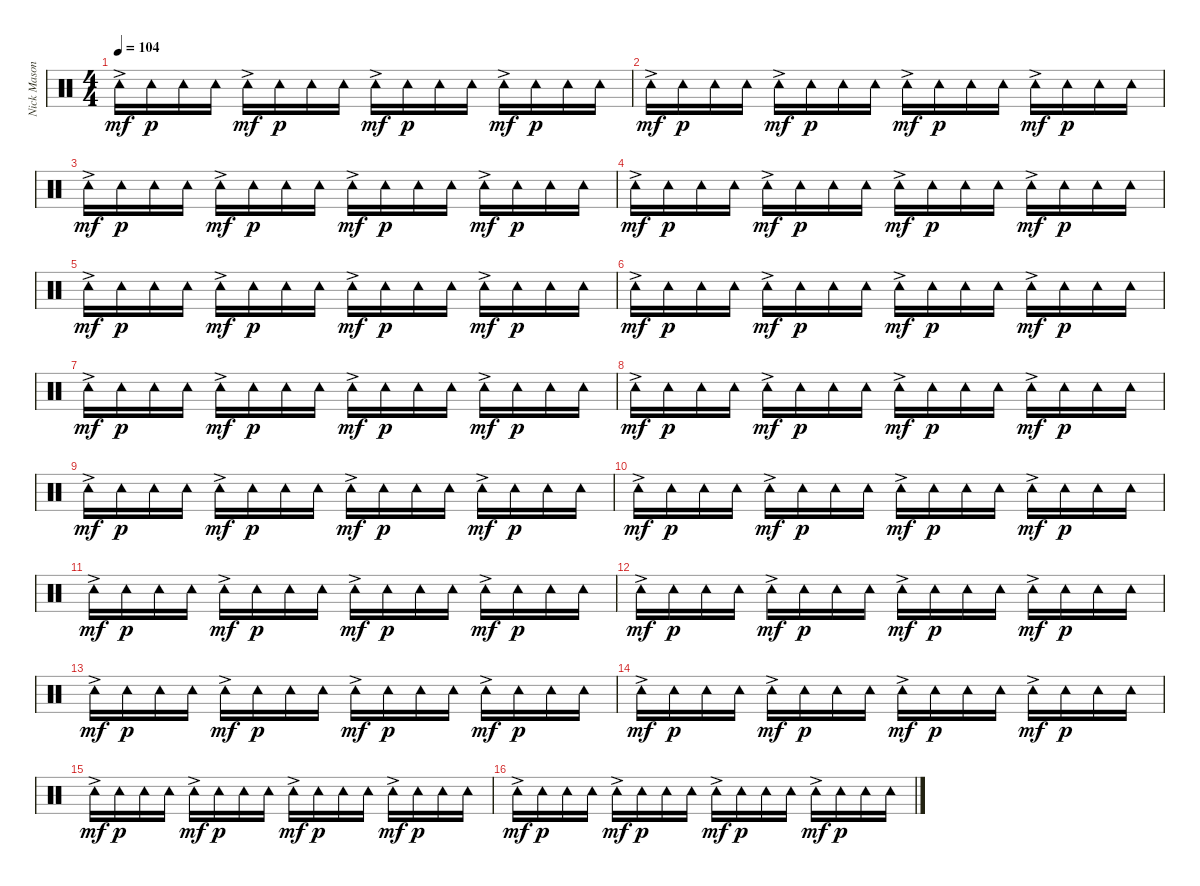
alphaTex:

\track ("Nick Mason | Tambourine" "Nick Mason") {instrument percussion}
\staff {score}
\articulation defaults
\ts (4 4)
\tempo 104
\clef neutral
\ks c "Tambourine (hit)"{ac}.16{dy mf} "Tambourine (hit)".16{dy p} "Tambourine (hit)".16 "Tambourine (hit)".16 "Tambourine (hit)"{ac}.16{dy mf} "Tambourine (hit)".16{dy p} "Tambourine (hit)".16 "Tambourine (hit)".16 "Tambourine (hit)"{ac}.16{dy mf} "Tambourine (hit)".16{dy p} "Tambourine (hit)".16 "Tambourine (hit)".16 "Tambourine (hit)"{ac}.16{dy mf} "Tambourine (hit)".16{dy p} "Tambourine (hit)".16 "Tambourine (hit)".16
|
"Tambourine (hit)"{ac}.16{dy mf} "Tambourine (hit)".16{dy p} "Tambourine (hit)".16 "Tambourine (hit)".16 "Tambourine (hit)"{ac}.16{dy mf} "Tambourine (hit)".16{dy p} "Tambourine (hit)".16 "Tambourine (hit)".16 "Tambourine (hit)"{ac}.16{dy mf} "Tambourine (hit)".16{dy p} "Tambourine (hit)".16 "Tambourine (hit)".16 "Tambourine (hit)"{ac}.16{dy mf} "Tambourine (hit)".16{dy p} "Tambourine (hit)".16 "Tambourine (hit)".16 |
"Tambourine (hit)"{ac}.16{dy mf} "Tambourine (hit)".16{dy p} "Tambourine (hit)".16 "Tambourine (hit)".16 "Tambourine (hit)"{ac}.16{dy mf} "Tambourine (hit)".16{dy p} "Tambourine (hit)".16 "Tambourine (hit)".16 "Tambourine (hit)"{ac}.16{dy mf} "Tambourine (hit)".16{dy p} "Tambourine (hit)".16 "Tambourine (hit)".16 "Tambourine (hit)"{ac}.16{dy mf} "Tambourine (hit)".16{dy p} "Tambourine (hit)".16 "Tambourine (hit)".16 |
"Tambourine (hit)"{ac}.16{dy mf} "Tambourine (hit)".16{dy p} "Tambourine (hit)".16 "Tambourine (hit)".16 "Tambourine (hit)"{ac}.16{dy mf} "Tambourine (hit)".16{dy p} "Tambourine (hit)".16 "Tambourine (hit)".16 "Tambourine (hit)"{ac}.16{dy mf} "Tambourine (hit)".16{dy p} "Tambourine (hit)".16 "Tambourine (hit)".16 "Tambourine (hit)"{ac}.16{dy mf} "Tambourine (hit)".16{dy p} "Tambourine (hit)".16 "Tambourine (hit)".16 |
"Tambourine (hit)"{ac}.16{dy mf} "Tambourine (hit)".16{dy p} "Tambourine (hit)".16 "Tambourine (hit)".16 "Tambourine (hit)"{ac}.16{dy mf} "Tambourine (hit)".16{dy p} "Tambourine (hit)".16 "Tambourine (hit)".16 "Tambourine (hit)"{ac}.16{dy mf} "Tambourine (hit)".16{dy p} "Tambourine (hit)".16 "Tambourine (hit)".16 "Tambourine (hit)"{ac}.16{dy mf} "Tambourine (hit)".16{dy p} "Tambourine (hit)".16 "Tambourine (hit)".16 |
"Tambourine (hit)"{ac}.16{dy mf} "Tambourine (hit)".16{dy p} "Tambourine (hit)".16 "Tambourine (hit)".16 "Tambourine (hit)"{ac}.16{dy mf} "Tambourine (hit)".16{dy p} "Tambourine (hit)".16 "Tambourine (hit)".16 "Tambourine (hit)"{ac}.16{dy mf} "Tambourine (hit)".16{dy p} "Tambourine (hit)".16 "Tambourine (hit)".16 "Tambourine (hit)"{ac}.16{dy mf} "Tambourine (hit)".16{dy p} "Tambourine (hit)".16 "Tambourine (hit)".16 |
"Tambourine (hit)"{ac}.16{dy mf} "Tambourine (hit)".16{dy p} "Tambourine (hit)".16 "Tambourine (hit)".16 "Tambourine (hit)"{ac}.16{dy mf} "Tambourine (hit)".16{dy p} "Tambourine (hit)".16 "Tambourine (hit)".16 "Tambourine (hit)"{ac}.16{dy mf} "Tambourine (hit)".16{dy p} "Tambourine (hit)".16 "Tambourine (hit)".16 "Tambourine (hit)"{ac}.16{dy mf} "Tambourine (hit)".16{dy p} "Tambourine (hit)".16 "Tambourine (hit)".16 |
"Tambourine (hit)"{ac}.16{dy mf} "Tambourine (hit)".16{dy p} "Tambourine (hit)".16 "Tambourine (hit)".16 "Tambourine (hit)"{ac}.16{dy mf} "Tambourine (hit)".16{dy p} "Tambourine (hit)".16 "Tambourine (hit)".16 "Tambourine (hit)"{ac}.16{dy mf} "Tambourine (hit)".16{dy p} "Tambourine (hit)".16 "Tambourine (hit)".16 "Tambourine (hit)"{ac}.16{dy mf} "Tambourine (hit)".16{dy p} "Tambourine (hit)".16 "Tambourine (hit)".16 |
"Tambourine (hit)"{ac}.16{dy mf} "Tambourine (hit)".16{dy p} "Tambourine (hit)".16 "Tambourine (hit)".16 "Tambourine (hit)"{ac}.16{dy mf} "Tambourine (hit)".16{dy p} "Tambourine (hit)".16 "Tambourine (hit)".16 "Tambourine (hit)"{ac}.16{dy mf} "Tambourine (hit)".16{dy p} "Tambourine (hit)".16 "Tambourine (hit)".16 "Tambourine (hit)"{ac}.16{dy mf} "Tambourine (hit)".16{dy p} "Tambourine (hit)".16 "Tambourine (hit)".16 |
"Tambourine (hit)"{ac}.16{dy mf} "Tambourine (hit)".16{dy p} "Tambourine (hit)".16 "Tambourine (hit)".16 "Tambourine (hit)"{ac}.16{dy mf} "Tambourine (hit)".16{dy p} "Tambourine (hit)".16 "Tambourine (hit)".16 "Tambourine (hit)"{ac}.16{dy mf} "Tambourine (hit)".16{dy p} "Tambourine (hit)".16 "Tambourine (hit)".16 "Tambourine (hit)"{ac}.16{dy mf} "Tambourine (hit)".16{dy p} "Tambourine (hit)".16 "Tambourine (hit)".16 |
"Tambourine (hit)"{ac}.16{dy mf} "Tambourine (hit)".16{dy p} "Tambourine (hit)".16 "Tambourine (hit)".16 "Tambourine (hit)"{ac}.16{dy mf} "Tambourine (hit)".16{dy p} "Tambourine (hit)".16 "Tambourine (hit)".16 "Tambourine (hit)"{ac}.16{dy mf} "Tambourine (hit)".16{dy p} "Tambourine (hit)".16 "Tambourine (hit)".16 "Tambourine (hit)"{ac}.16{dy mf} "Tambourine (hit)".16{dy p} "Tambourine (hit)".16 "Tambourine (hit)".16 |
"Tambourine (hit)"{ac}.16{dy mf} "Tambourine (hit)".16{dy p} "Tambourine (hit)".16 "Tambourine (hit)".16 "Tambourine (hit)"{ac}.16{dy mf} "Tambourine (hit)".16{dy p} "Tambourine (hit)".16 "Tambourine (hit)".16 "Tambourine (hit)"{ac}.16{dy mf} "Tambourine (hit)".16{dy p} "Tambourine (hit)".16 "Tambourine (hit)".16 "Tambourine (hit)"{ac}.16{dy mf} "Tambourine (hit)".16{dy p} "Tambourine (hit)".16 "Tambourine (hit)".16 |
"Tambourine (hit)"{ac}.16{dy mf} "Tambourine (hit)".16{dy p} "Tambourine (hit)".16 "Tambourine (hit)".16 "Tambourine (hit)"{ac}.16{dy mf} "Tambourine (hit)".16{dy p} "Tambourine (hit)".16 "Tambourine (hit)".16 "Tambourine (hit)"{ac}.16{dy mf} "Tambourine (hit)".16{dy p} "Tambourine (hit)".16 "Tambourine (hit)".16 "Tambourine (hit)"{ac}.16{dy mf} "Tambourine (hit)".16{dy p} "Tambourine (hit)".16 "Tambourine (hit)".16 |
"Tambourine (hit)"{ac}.16{dy mf} "Tambourine (hit)".16{dy p} "Tambourine (hit)".16 "Tambourine (hit)".16 "Tambourine (hit)"{ac}.16{dy mf} "Tambourine (hit)".16{dy p} "Tambourine (hit)".16 "Tambourine (hit)".16 "Tambourine (hit)"{ac}.16{dy mf} "Tambourine (hit)".16{dy p} "Tambourine (hit)".16 "Tambourine (hit)".16 "Tambourine (hit)"{ac}.16{dy mf} "Tambourine (hit)".16{dy p} "Tambourine (hit)".16 "Tambourine (hit)".16 |
"Tambourine (hit)"{ac}.16{dy mf} "Tambourine (hit)".16{dy p} "Tambourine (hit)".16 "Tambourine (hit)".16 "Tambourine (hit)"{ac}.16{dy mf} "Tambourine (hit)".16{dy p} "Tambourine (hit)".16 "Tambourine (hit)".16 "Tambourine (hit)"{ac}.16{dy mf} "Tambourine (hit)".16{dy p} "Tambourine (hit)".16 "Tambourine (hit)".16 "Tambourine (hit)"{ac}.16{dy mf} "Tambourine (hit)".16{dy p} "Tambourine (hit)".16 "Tambourine (hit)".16 |
"Tambourine (hit)"{ac}.16{dy mf} "Tambourine (hit)".16{dy p} "Tambourine (hit)".16 "Tambourine (hit)".16 "Tambourine (hit)"{ac}.16{dy mf} "Tambourine (hit)".16{dy p} "Tambourine (hit)".16 "Tambourine (hit)".16 "Tambourine (hit)"{ac}.16{dy mf} "Tambourine (hit)".16{dy p} "Tambourine (hit)".16 "Tambourine (hit)".16 "Tambourine (hit)"{ac}.16{dy mf} "Tambourine (hit)".16{dy p} "Tambourine (hit)".16 "Tambourine (hit)".16
